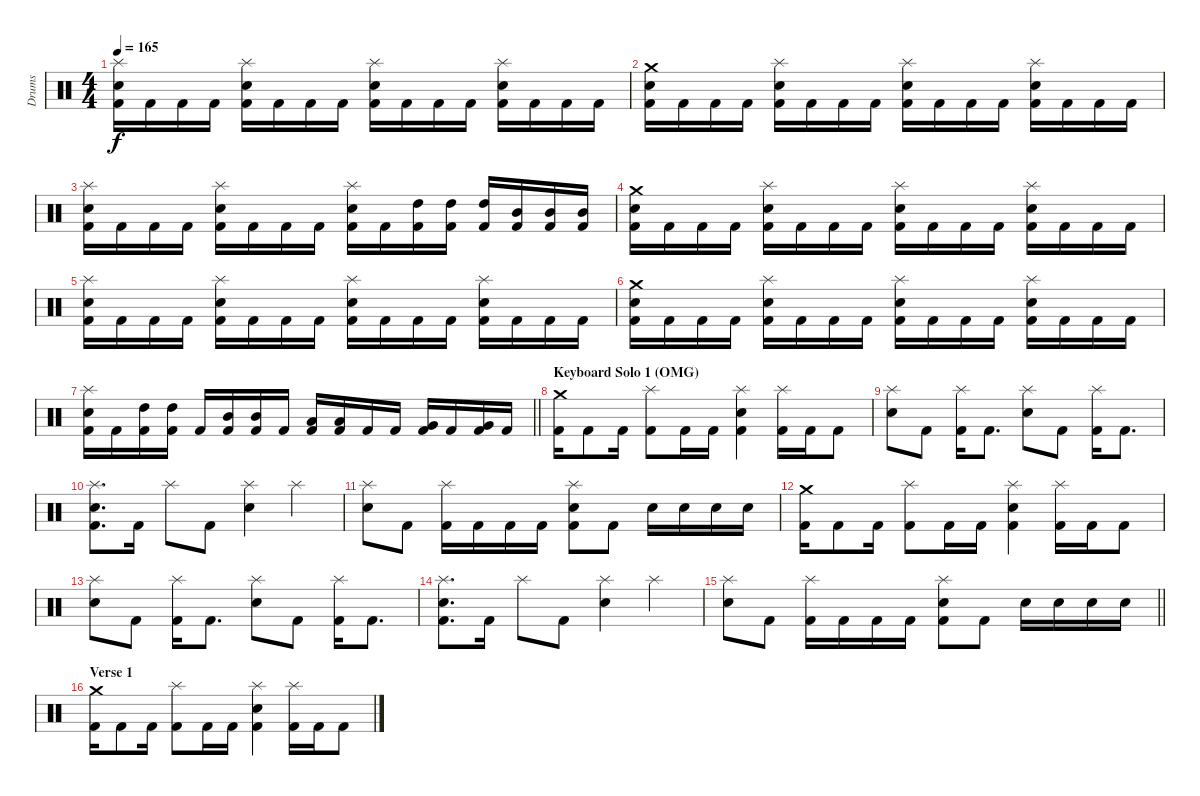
\track ("Drums" "Drums") {instrument percussion}
\staff {score}
\articulation defaults
\ts (4 4)
\tempo 165
\clef neutral
\ks c
("Splash (hit)" "Snare (hit) 2" "Kick (hit) 2").16{dy f} "Kick (hit) 2".16 "Kick (hit) 2".16 "Kick (hit) 2".16 ("Splash (hit)" "Snare (hit) 2" "Kick (hit) 2").16 "Kick (hit) 2".16 "Kick (hit) 2".16 "Kick (hit) 2".16 ("Splash (hit)" "Snare (hit) 2" "Kick (hit) 2").16 "Kick (hit) 2".16 "Kick (hit) 2".16 "Kick (hit) 2".16 ("Splash (hit)" "Snare (hit) 2" "Kick (hit) 2").16 "Kick (hit) 2".16 "Kick (hit) 2".16 "Kick (hit) 2".16 |
("Crash medium (hit)" "Snare (hit) 2" "Kick (hit) 2").16 "Kick (hit) 2".16 "Kick (hit) 2".16 "Kick (hit) 2".16 ("Splash (hit)" "Snare (hit) 2" "Kick (hit) 2").16 "Kick (hit) 2".16 "Kick (hit) 2".16 "Kick (hit) 2".16 ("Splash (hit)" "Snare (hit) 2" "Kick (hit) 2").16 "Kick (hit) 2".16 "Kick (hit) 2".16 "Kick (hit) 2".16 ("Splash (hit)" "Snare (hit) 2" "Kick (hit) 2").16 "Kick (hit) 2".16 "Kick (hit) 2".16 "Kick (hit) 2".16 |
("Splash (hit)" "Snare (hit) 2" "Kick (hit) 2").16 "Kick (hit) 2".16 "Kick (hit) 2".16 "Kick (hit) 2".16 ("Splash (hit)" "Snare (hit) 2" "Kick (hit) 2").16 "Kick (hit) 2".16 "Kick (hit) 2".16 "Kick (hit) 2".16 ("Splash (hit)" "Snare (hit) 2" "Kick (hit) 2").16 "Kick (hit) 2".16 ("High Tom (hit)" "Kick (hit) 2").16 ("High Tom (hit)" "Kick (hit) 2").16 ("High Tom (hit)" "Kick (hit) 2").16 ("Mid Tom (hit)" "Kick (hit) 2").16 ("Mid Tom (hit)" "Kick (hit) 2").16 ("Mid Tom (hit)" "Kick (hit) 2").16 |
("Crash medium (hit)" "Snare (hit) 2" "Kick (hit) 2").16 "Kick (hit) 2".16 "Kick (hit) 2".16 "Kick (hit) 2".16 ("Splash (hit)" "Snare (hit) 2" "Kick (hit) 2").16 "Kick (hit) 2".16 "Kick (hit) 2".16 "Kick (hit) 2".16 ("Splash (hit)" "Snare (hit) 2" "Kick (hit) 2").16 "Kick (hit) 2".16 "Kick (hit) 2".16 "Kick (hit) 2".16 ("Splash (hit)" "Snare (hit) 2" "Kick (hit) 2").16 "Kick (hit) 2".16 "Kick (hit) 2".16 "Kick (hit) 2".16 |
("Splash (hit)" "Snare (hit) 2" "Kick (hit) 2").16 "Kick (hit) 2".16 "Kick (hit) 2".16 "Kick (hit) 2".16 ("Splash (hit)" "Snare (hit) 2" "Kick (hit) 2").16 "Kick (hit) 2".16 "Kick (hit) 2".16 "Kick (hit) 2".16 ("Splash (hit)" "Snare (hit) 2" "Kick (hit) 2").16 "Kick (hit) 2".16 "Kick (hit) 2".16 "Kick (hit) 2".16 ("Splash (hit)" "Snare (hit) 2" "Kick (hit) 2").16 "Kick (hit) 2".16 "Kick (hit) 2".16 "Kick (hit) 2".16 |
("Crash medium (hit)" "Snare (hit) 2" "Kick (hit) 2").16 "Kick (hit) 2".16 "Kick (hit) 2".16 "Kick (hit) 2".16 ("Splash (hit)" "Snare (hit) 2" "Kick (hit) 2").16 "Kick (hit) 2".16 "Kick (hit) 2".16 "Kick (hit) 2".16 ("Splash (hit)" "Snare (hit) 2" "Kick (hit) 2").16 "Kick (hit) 2".16 "Kick (hit) 2".16 "Kick (hit) 2".16 ("Splash (hit)" "Snare (hit) 2" "Kick (hit) 2").16 "Kick (hit) 2".16 "Kick (hit) 2".16 "Kick (hit) 2".16 |
\barLineRight lightlight
("Splash (hit)" "Snare (hit) 2" "Kick (hit) 2").16 "Kick (hit) 2".16 ("High Tom (hit)" "Kick (hit) 2").16 ("High Tom (hit)" "Kick (hit) 2").16 "Kick (hit) 2".16 ("Mid Tom (hit)" "Kick (hit) 2").16 ("Mid Tom (hit)" "Kick (hit) 2").16 "Kick (hit) 2".16 ("Low Tom (hit)" "Kick (hit) 2").16 ("Low Tom (hit)" "Kick (hit) 2").16 "Kick (hit) 2".16 "Kick (hit) 2".16 ("Very Low Tom (hit)" "Kick (hit) 2").16 "Kick (hit) 2".16 ("Very Low Tom (hit)" "Kick (hit) 2").16 "Kick (hit) 2".16 |
\section ("" "Keyboard Solo 1 (OMG)")
("Crash medium (hit)" "Kick (hit) 2").16 "Kick (hit) 2".8 "Kick (hit) 2".16 ("Splash (hit)" "Kick (hit) 2").8 "Kick (hit) 2".16 "Kick (hit) 2".16 ("Splash (hit)" "Snare (hit) 2" "Kick (hit) 2").4 ("Splash (hit)" "Kick (hit) 2").16 "Kick (hit) 2".16 "Kick (hit) 2".8 |
("Splash (hit)" "Snare (hit) 2").8 "Kick (hit) 2".8 ("Splash (hit)" "Kick (hit) 2").16 "Kick (hit) 2".8{d} ("Splash (hit)" "Snare (hit) 2").8 "Kick (hit) 2".8 ("Splash (hit)" "Kick (hit) 2").16 "Kick (hit) 2".8{d} |
("Splash (hit)" "Snare (hit) 2" "Kick (hit) 2").8{d} "Kick (hit) 2".16 "Splash (hit)".8 "Kick (hit) 2".8 ("Splash (hit)" "Snare (hit) 2").4 "Splash (hit)".4 |
("Splash (hit)" "Snare (hit) 2").8 "Kick (hit) 2".8 ("Splash (hit)" "Kick (hit) 2").16 "Kick (hit) 2".16 "Kick (hit) 2".16 "Kick (hit) 2".16 ("Splash (hit)" "Snare (hit) 2" "Kick (hit) 2").8 "Kick (hit) 2".8 "Snare (hit) 2".16 "Snare (hit) 2".16 "Snare (hit) 2".16 "Snare (hit) 2".16 |
("Crash medium (hit)" "Kick (hit) 2").16 "Kick (hit) 2".8 "Kick (hit) 2".16 ("Splash (hit)" "Kick (hit) 2").8 "Kick (hit) 2".16 "Kick (hit) 2".16 ("Splash (hit)" "Snare (hit) 2" "Kick (hit) 2").4 ("Splash (hit)" "Kick (hit) 2").16 "Kick (hit) 2".16 "Kick (hit) 2".8 |
("Splash (hit)" "Snare (hit) 2").8 "Kick (hit) 2".8 ("Splash (hit)" "Kick (hit) 2").16 "Kick (hit) 2".8{d} ("Splash (hit)" "Snare (hit) 2").8 "Kick (hit) 2".8 ("Splash (hit)" "Kick (hit) 2").16 "Kick (hit) 2".8{d} |
("Splash (hit)" "Snare (hit) 2" "Kick (hit) 2").8{d} "Kick (hit) 2".16 "Splash (hit)".8 "Kick (hit) 2".8 ("Splash (hit)" "Snare (hit) 2").4 "Splash (hit)".4 |
\barLineRight lightlight
("Splash (hit)" "Snare (hit) 2").8 "Kick (hit) 2".8 ("Splash (hit)" "Kick (hit) 2").16 "Kick (hit) 2".16 "Kick (hit) 2".16 "Kick (hit) 2".16 ("Splash (hit)" "Snare (hit) 2" "Kick (hit) 2").8 "Kick (hit) 2".8 "Snare (hit) 2".16 "Snare (hit) 2".16 "Snare (hit) 2".16 "Snare (hit) 2".16 |
\section ("" "Verse 1")
("Crash medium (hit)" "Kick (hit) 2").16 "Kick (hit) 2".8 "Kick (hit) 2".16 ("Splash (hit)" "Kick (hit) 2").8 "Kick (hit) 2".16 "Kick (hit) 2".16 ("Splash (hit)" "Snare (hit) 2" "Kick (hit) 2").4 ("Splash (hit)" "Kick (hit) 2").16 "Kick (hit) 2".16 "Kick (hit) 2".8
